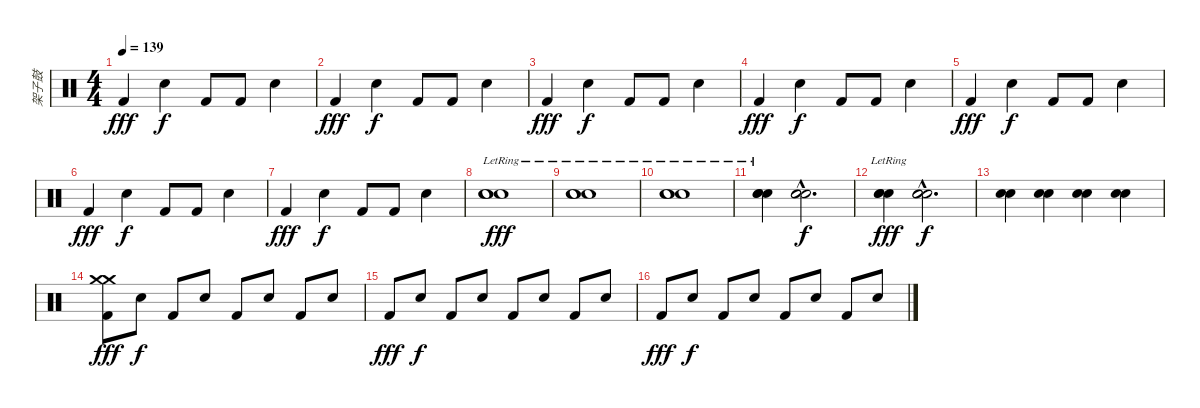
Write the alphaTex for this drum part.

\track ("架子鼓" "架子鼓") {instrument percussion}
\staff {score}
\articulation defaults
\ts (4 4)
\tempo 139
\clef neutral
\ks c "Kick (hit) 2".4{dy fff} "Electric Snare (hit)".4{dy f} "Kick (hit) 2".8 "Kick (hit) 2".8 "Electric Snare (hit)".4
|
"Kick (hit) 2".4{dy fff} "Electric Snare (hit)".4{dy f} "Kick (hit) 2".8 "Kick (hit) 2".8 "Electric Snare (hit)".4 |
"Kick (hit) 2".4{dy fff} "Electric Snare (hit)".4{dy f} "Kick (hit) 2".8 "Kick (hit) 2".8 "Electric Snare (hit)".4 |
"Kick (hit) 2".4{dy fff} "Electric Snare (hit)".4{dy f} "Kick (hit) 2".8 "Kick (hit) 2".8 "Electric Snare (hit)".4 |
"Kick (hit) 2".4{dy fff} "Electric Snare (hit)".4{dy f} "Kick (hit) 2".8 "Kick (hit) 2".8 "Electric Snare (hit)".4 |
"Kick (hit) 2".4{dy fff} "Electric Snare (hit)".4{dy f} "Kick (hit) 2".8 "Kick (hit) 2".8 "Electric Snare (hit)".4 |
"Kick (hit) 2".4{dy fff} "Electric Snare (hit)".4{dy f} "Kick (hit) 2".8 "Kick (hit) 2".8 "Electric Snare (hit)".4 |
("Electric Snare (hit)"{lr} "Electric Snare (hit)"{lr} "Electric Snare (hit)"{lr}).1{dy fff} |
("Electric Snare (hit)"{lr} "Electric Snare (hit)"{lr} "Electric Snare (hit)"{lr}).1 |
("Electric Snare (hit)"{lr} "Electric Snare (hit)"{lr} "Electric Snare (hit)"{lr}).1 |
("Electric Snare (hit)"{lr} "Electric Snare (hit)"{lr} "Electric Snare (hit)"{lr}).4 ("Electric Snare (hit)"{hac} "Electric Snare (hit)"{hac} "Electric Snare (hit)"{hac}).2{d dy f} |
("Electric Snare (hit)"{lr} "Electric Snare (hit)"{lr} "Electric Snare (hit)"{lr}).4{dy fff} ("Electric Snare (hit)"{hac} "Electric Snare (hit)"{hac} "Electric Snare (hit)"{hac}).2{d dy f} |
("Electric Snare (hit)" "Electric Snare (hit)").4 ("Electric Snare (hit)" "Electric Snare (hit)").4 ("Electric Snare (hit)" "Electric Snare (hit)").4 ("Electric Snare (hit)" "Electric Snare (hit)").4 |
("Kick (hit) 2" "Crash medium (hit)" "Crash medium (hit)").8{dy fff} "Electric Snare (hit)".8{dy f} "Kick (hit) 2".8 "Electric Snare (hit)".8 "Kick (hit) 2".8 "Electric Snare (hit)".8 "Kick (hit) 2".8 "Electric Snare (hit)".8 |
"Kick (hit) 2".8{dy fff} "Electric Snare (hit)".8{dy f} "Kick (hit) 2".8 "Electric Snare (hit)".8 "Kick (hit) 2".8 "Electric Snare (hit)".8 "Kick (hit) 2".8 "Electric Snare (hit)".8 |
"Kick (hit) 2".8{dy fff} "Electric Snare (hit)".8{dy f} "Kick (hit) 2".8 "Electric Snare (hit)".8 "Kick (hit) 2".8 "Electric Snare (hit)".8 "Kick (hit) 2".8 "Electric Snare (hit)".8
